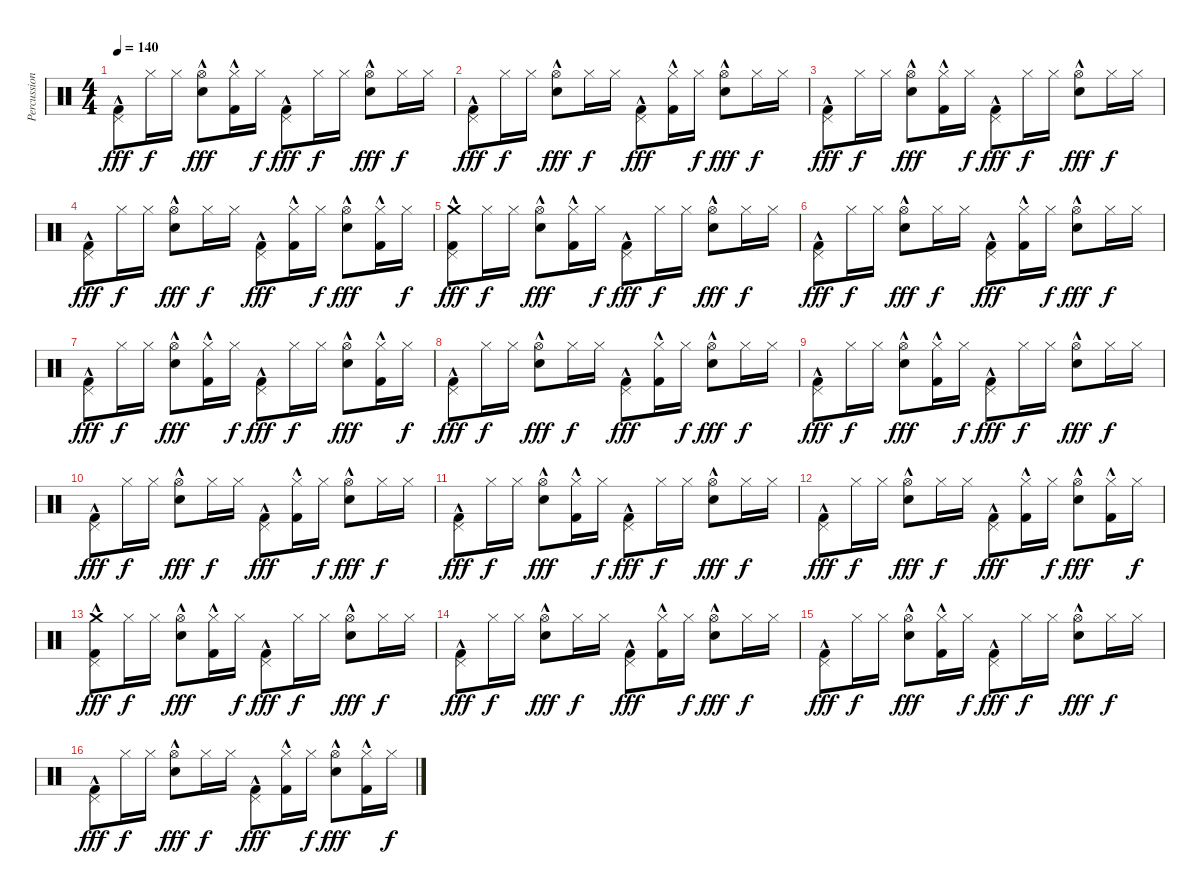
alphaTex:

\track ("Percussion" "Percussion") {instrument percussion}
\staff {score}
\articulation defaults
\ts (4 4)
\tempo 140
\clef neutral
\ks c
("Pedal Hi-Hat (hit)" "Kick (hit) 2"{hac}).8{dy fff} "Hi-Hat (closed)".16{dy f} "Hi-Hat (closed)".16 ("Hi-Hat (open)" "Electric Snare (hit)"{hac}).8{dy fff} ("Hi-Hat (closed)" "Kick (hit) 2"{hac}).16 "Hi-Hat (closed)".16{dy f} ("Pedal Hi-Hat (hit)" "Kick (hit) 2"{hac}).8{dy fff} "Hi-Hat (closed)".16{dy f} "Hi-Hat (closed)".16 ("Hi-Hat (open)" "Electric Snare (hit)"{hac}).8{dy fff} "Hi-Hat (closed)".16{dy f} "Hi-Hat (closed)".16 |
("Pedal Hi-Hat (hit)" "Kick (hit) 2"{hac}).8{dy fff} "Hi-Hat (closed)".16{dy f} "Hi-Hat (closed)".16 ("Hi-Hat (open)" "Electric Snare (hit)"{hac}).8{dy fff} "Hi-Hat (closed)".16{dy f} "Hi-Hat (closed)".16 ("Pedal Hi-Hat (hit)" "Kick (hit) 2"{hac}).8{dy fff} ("Hi-Hat (closed)" "Kick (hit) 2"{hac}).16 "Hi-Hat (closed)".16{dy f} ("Hi-Hat (open)" "Electric Snare (hit)"{hac}).8{dy fff} "Hi-Hat (closed)".16{dy f} "Hi-Hat (closed)".16 |
("Pedal Hi-Hat (hit)" "Kick (hit) 2"{hac}).8{dy fff} "Hi-Hat (closed)".16{dy f} "Hi-Hat (closed)".16 ("Hi-Hat (open)" "Electric Snare (hit)"{hac}).8{dy fff} ("Hi-Hat (closed)" "Kick (hit) 2"{hac}).16 "Hi-Hat (closed)".16{dy f} ("Pedal Hi-Hat (hit)" "Kick (hit) 2"{hac}).8{dy fff} "Hi-Hat (closed)".16{dy f} "Hi-Hat (closed)".16 ("Hi-Hat (open)" "Electric Snare (hit)"{hac}).8{dy fff} "Hi-Hat (closed)".16{dy f} "Hi-Hat (closed)".16 |
("Pedal Hi-Hat (hit)" "Kick (hit) 2"{hac}).8{dy fff} "Hi-Hat (closed)".16{dy f} "Hi-Hat (closed)".16 ("Hi-Hat (open)" "Electric Snare (hit)"{hac}).8{dy fff} "Hi-Hat (closed)".16{dy f} "Hi-Hat (closed)".16 ("Pedal Hi-Hat (hit)" "Kick (hit) 2"{hac}).8{dy fff} ("Hi-Hat (closed)" "Kick (hit) 2"{hac}).16 "Hi-Hat (closed)".16{dy f} ("Hi-Hat (open)" "Electric Snare (hit)"{hac}).8{dy fff} ("Hi-Hat (closed)" "Kick (hit) 2"{hac}).16 "Hi-Hat (closed)".16{dy f} |
("Crash medium (hit)"{hac} "Pedal Hi-Hat (hit)" "Kick (hit) 2"{hac}).8{dy fff} "Hi-Hat (closed)".16{dy f} "Hi-Hat (closed)".16 ("Hi-Hat (open)" "Electric Snare (hit)"{hac}).8{dy fff} ("Hi-Hat (closed)" "Kick (hit) 2"{hac}).16 "Hi-Hat (closed)".16{dy f} ("Pedal Hi-Hat (hit)" "Kick (hit) 2"{hac}).8{dy fff} "Hi-Hat (closed)".16{dy f} "Hi-Hat (closed)".16 ("Hi-Hat (open)" "Electric Snare (hit)"{hac}).8{dy fff} "Hi-Hat (closed)".16{dy f} "Hi-Hat (closed)".16 |
("Pedal Hi-Hat (hit)" "Kick (hit) 2"{hac}).8{dy fff} "Hi-Hat (closed)".16{dy f} "Hi-Hat (closed)".16 ("Hi-Hat (open)" "Electric Snare (hit)"{hac}).8{dy fff} "Hi-Hat (closed)".16{dy f} "Hi-Hat (closed)".16 ("Pedal Hi-Hat (hit)" "Kick (hit) 2"{hac}).8{dy fff} ("Hi-Hat (closed)" "Kick (hit) 2"{hac}).16 "Hi-Hat (closed)".16{dy f} ("Hi-Hat (open)" "Electric Snare (hit)"{hac}).8{dy fff} "Hi-Hat (closed)".16{dy f} "Hi-Hat (closed)".16 |
("Pedal Hi-Hat (hit)" "Kick (hit) 2"{hac}).8{dy fff} "Hi-Hat (closed)".16{dy f} "Hi-Hat (closed)".16 ("Hi-Hat (open)" "Electric Snare (hit)"{hac}).8{dy fff} ("Hi-Hat (closed)" "Kick (hit) 2"{hac}).16 "Hi-Hat (closed)".16{dy f} ("Pedal Hi-Hat (hit)" "Kick (hit) 2"{hac}).8{dy fff} "Hi-Hat (closed)".16{dy f} "Hi-Hat (closed)".16 ("Hi-Hat (open)" "Electric Snare (hit)"{hac}).8{dy fff} ("Hi-Hat (closed)" "Kick (hit) 2"{hac}).16 "Hi-Hat (closed)".16{dy f} |
("Pedal Hi-Hat (hit)" "Kick (hit) 2"{hac}).8{dy fff} "Hi-Hat (closed)".16{dy f} "Hi-Hat (closed)".16 ("Hi-Hat (open)" "Electric Snare (hit)"{hac}).8{dy fff} "Hi-Hat (closed)".16{dy f} "Hi-Hat (closed)".16 ("Pedal Hi-Hat (hit)" "Kick (hit) 2"{hac}).8{dy fff} ("Hi-Hat (closed)" "Kick (hit) 2"{hac}).16 "Hi-Hat (closed)".16{dy f} ("Hi-Hat (open)" "Electric Snare (hit)"{hac}).8{dy fff} "Hi-Hat (closed)".16{dy f} "Hi-Hat (closed)".16 |
("Pedal Hi-Hat (hit)" "Kick (hit) 2"{hac}).8{dy fff} "Hi-Hat (closed)".16{dy f} "Hi-Hat (closed)".16 ("Hi-Hat (open)" "Electric Snare (hit)"{hac}).8{dy fff} ("Hi-Hat (closed)" "Kick (hit) 2"{hac}).16 "Hi-Hat (closed)".16{dy f} ("Pedal Hi-Hat (hit)" "Kick (hit) 2"{hac}).8{dy fff} "Hi-Hat (closed)".16{dy f} "Hi-Hat (closed)".16 ("Hi-Hat (open)" "Electric Snare (hit)"{hac}).8{dy fff} "Hi-Hat (closed)".16{dy f} "Hi-Hat (closed)".16 |
("Pedal Hi-Hat (hit)" "Kick (hit) 2"{hac}).8{dy fff} "Hi-Hat (closed)".16{dy f} "Hi-Hat (closed)".16 ("Hi-Hat (open)" "Electric Snare (hit)"{hac}).8{dy fff} "Hi-Hat (closed)".16{dy f} "Hi-Hat (closed)".16 ("Pedal Hi-Hat (hit)" "Kick (hit) 2"{hac}).8{dy fff} ("Hi-Hat (closed)" "Kick (hit) 2"{hac}).16 "Hi-Hat (closed)".16{dy f} ("Hi-Hat (open)" "Electric Snare (hit)"{hac}).8{dy fff} "Hi-Hat (closed)".16{dy f} "Hi-Hat (closed)".16 |
("Pedal Hi-Hat (hit)" "Kick (hit) 2"{hac}).8{dy fff} "Hi-Hat (closed)".16{dy f} "Hi-Hat (closed)".16 ("Hi-Hat (open)" "Electric Snare (hit)"{hac}).8{dy fff} ("Hi-Hat (closed)" "Kick (hit) 2"{hac}).16 "Hi-Hat (closed)".16{dy f} ("Pedal Hi-Hat (hit)" "Kick (hit) 2"{hac}).8{dy fff} "Hi-Hat (closed)".16{dy f} "Hi-Hat (closed)".16 ("Hi-Hat (open)" "Electric Snare (hit)"{hac}).8{dy fff} "Hi-Hat (closed)".16{dy f} "Hi-Hat (closed)".16 |
("Pedal Hi-Hat (hit)" "Kick (hit) 2"{hac}).8{dy fff} "Hi-Hat (closed)".16{dy f} "Hi-Hat (closed)".16 ("Hi-Hat (open)" "Electric Snare (hit)"{hac}).8{dy fff} "Hi-Hat (closed)".16{dy f} "Hi-Hat (closed)".16 ("Pedal Hi-Hat (hit)" "Kick (hit) 2"{hac}).8{dy fff} ("Hi-Hat (closed)" "Kick (hit) 2"{hac}).16 "Hi-Hat (closed)".16{dy f} ("Hi-Hat (open)" "Electric Snare (hit)"{hac}).8{dy fff} ("Hi-Hat (closed)" "Kick (hit) 2"{hac}).16 "Hi-Hat (closed)".16{dy f} |
("Crash medium (hit)"{hac} "Pedal Hi-Hat (hit)" "Kick (hit) 2"{hac}).8{dy fff} "Hi-Hat (closed)".16{dy f} "Hi-Hat (closed)".16 ("Hi-Hat (open)" "Electric Snare (hit)"{hac}).8{dy fff} ("Hi-Hat (closed)" "Kick (hit) 2"{hac}).16 "Hi-Hat (closed)".16{dy f} ("Pedal Hi-Hat (hit)" "Kick (hit) 2"{hac}).8{dy fff} "Hi-Hat (closed)".16{dy f} "Hi-Hat (closed)".16 ("Hi-Hat (open)" "Electric Snare (hit)"{hac}).8{dy fff} "Hi-Hat (closed)".16{dy f} "Hi-Hat (closed)".16 |
("Pedal Hi-Hat (hit)" "Kick (hit) 2"{hac}).8{dy fff} "Hi-Hat (closed)".16{dy f} "Hi-Hat (closed)".16 ("Hi-Hat (open)" "Electric Snare (hit)"{hac}).8{dy fff} "Hi-Hat (closed)".16{dy f} "Hi-Hat (closed)".16 ("Pedal Hi-Hat (hit)" "Kick (hit) 2"{hac}).8{dy fff} ("Hi-Hat (closed)" "Kick (hit) 2"{hac}).16 "Hi-Hat (closed)".16{dy f} ("Hi-Hat (open)" "Electric Snare (hit)"{hac}).8{dy fff} "Hi-Hat (closed)".16{dy f} "Hi-Hat (closed)".16 |
("Pedal Hi-Hat (hit)" "Kick (hit) 2"{hac}).8{dy fff} "Hi-Hat (closed)".16{dy f} "Hi-Hat (closed)".16 ("Hi-Hat (open)" "Electric Snare (hit)"{hac}).8{dy fff} ("Hi-Hat (closed)" "Kick (hit) 2"{hac}).16 "Hi-Hat (closed)".16{dy f} ("Pedal Hi-Hat (hit)" "Kick (hit) 2"{hac}).8{dy fff} "Hi-Hat (closed)".16{dy f} "Hi-Hat (closed)".16 ("Hi-Hat (open)" "Electric Snare (hit)"{hac}).8{dy fff} "Hi-Hat (closed)".16{dy f} "Hi-Hat (closed)".16 |
("Pedal Hi-Hat (hit)" "Kick (hit) 2"{hac}).8{dy fff} "Hi-Hat (closed)".16{dy f} "Hi-Hat (closed)".16 ("Hi-Hat (open)" "Electric Snare (hit)"{hac}).8{dy fff} "Hi-Hat (closed)".16{dy f} "Hi-Hat (closed)".16 ("Pedal Hi-Hat (hit)" "Kick (hit) 2"{hac}).8{dy fff} ("Hi-Hat (closed)" "Kick (hit) 2"{hac}).16 "Hi-Hat (closed)".16{dy f} ("Hi-Hat (open)" "Electric Snare (hit)"{hac}).8{dy fff} ("Hi-Hat (closed)" "Kick (hit) 2"{hac}).16 "Hi-Hat (closed)".16{dy f}
